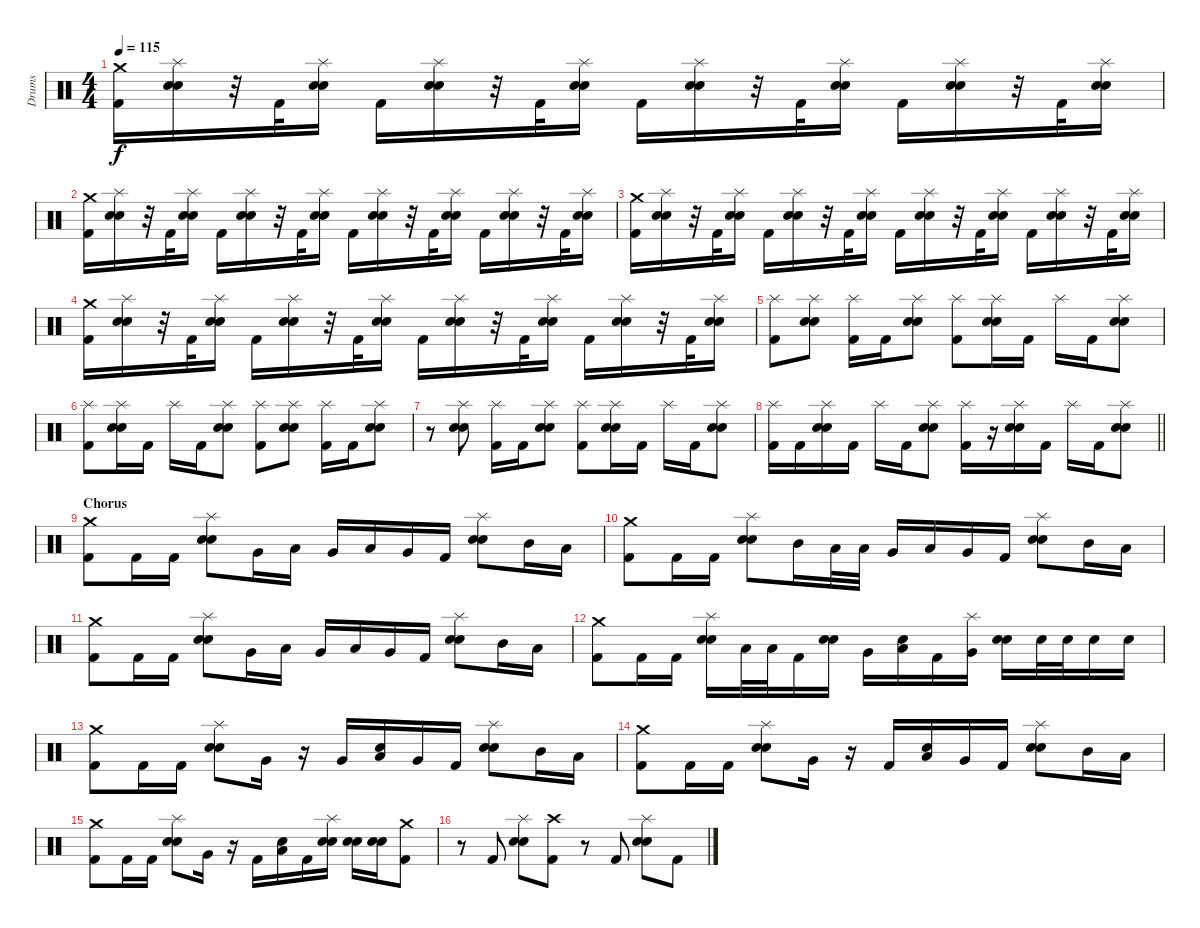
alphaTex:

\track ("Drums" "Drums") {instrument percussion}
\staff {score}
\articulation defaults
\ts (4 4)
\tempo 115
\clef neutral
\ks c
("Crash medium (hit)" "Kick (hit) 2").16{dy f} ("Splash (hit)" "Electric Snare (hit)" "Snare (hit) 2").16 r.32 "Kick (hit) 2".32 ("Splash (hit)" "Electric Snare (hit)" "Snare (hit) 2").16 "Kick (hit) 2".16 ("Splash (hit)" "Electric Snare (hit)" "Snare (hit) 2").16 r.32 "Kick (hit) 2".32 ("Splash (hit)" "Electric Snare (hit)" "Snare (hit) 2").16 "Kick (hit) 2".16 ("Splash (hit)" "Electric Snare (hit)" "Snare (hit) 2").16 r.32 "Kick (hit) 2".32 ("Splash (hit)" "Electric Snare (hit)" "Snare (hit) 2").16 "Kick (hit) 2".16 ("Splash (hit)" "Electric Snare (hit)" "Snare (hit) 2").16 r.32 "Kick (hit) 2".32 ("Splash (hit)" "Electric Snare (hit)" "Snare (hit) 2").16 |
("Crash medium (hit)" "Kick (hit) 2").16 ("Splash (hit)" "Electric Snare (hit)" "Snare (hit) 2").16 r.32 "Kick (hit) 2".32 ("Splash (hit)" "Electric Snare (hit)" "Snare (hit) 2").16 "Kick (hit) 2".16 ("Splash (hit)" "Electric Snare (hit)" "Snare (hit) 2").16 r.32 "Kick (hit) 2".32 ("Splash (hit)" "Electric Snare (hit)" "Snare (hit) 2").16 "Kick (hit) 2".16 ("Splash (hit)" "Electric Snare (hit)" "Snare (hit) 2").16 r.32 "Kick (hit) 2".32 ("Splash (hit)" "Electric Snare (hit)" "Snare (hit) 2").16 "Kick (hit) 2".16 ("Splash (hit)" "Electric Snare (hit)" "Snare (hit) 2").16 r.32 "Kick (hit) 2".32 ("Splash (hit)" "Electric Snare (hit)" "Snare (hit) 2").16 |
("Crash medium (hit)" "Kick (hit) 2").16 ("Splash (hit)" "Electric Snare (hit)" "Snare (hit) 2").16 r.32 "Kick (hit) 2".32 ("Splash (hit)" "Electric Snare (hit)" "Snare (hit) 2").16 "Kick (hit) 2".16 ("Splash (hit)" "Electric Snare (hit)" "Snare (hit) 2").16 r.32 "Kick (hit) 2".32 ("Splash (hit)" "Electric Snare (hit)" "Snare (hit) 2").16 "Kick (hit) 2".16 ("Splash (hit)" "Electric Snare (hit)" "Snare (hit) 2").16 r.32 "Kick (hit) 2".32 ("Splash (hit)" "Electric Snare (hit)" "Snare (hit) 2").16 "Kick (hit) 2".16 ("Splash (hit)" "Electric Snare (hit)" "Snare (hit) 2").16 r.32 "Kick (hit) 2".32 ("Splash (hit)" "Electric Snare (hit)" "Snare (hit) 2").16 |
("Crash medium (hit)" "Kick (hit) 2").16 ("Splash (hit)" "Electric Snare (hit)" "Snare (hit) 2").16 r.32 "Kick (hit) 2".32 ("Splash (hit)" "Electric Snare (hit)" "Snare (hit) 2").16 "Kick (hit) 2".16 ("Splash (hit)" "Electric Snare (hit)" "Snare (hit) 2").16 r.32 "Kick (hit) 2".32 ("Splash (hit)" "Electric Snare (hit)" "Snare (hit) 2").16 "Kick (hit) 2".16 ("Splash (hit)" "Electric Snare (hit)" "Snare (hit) 2").16 r.32 "Kick (hit) 2".32 ("Splash (hit)" "Electric Snare (hit)" "Snare (hit) 2").16 "Kick (hit) 2".16 ("Splash (hit)" "Electric Snare (hit)" "Snare (hit) 2").16 r.32 "Kick (hit) 2".32 ("Splash (hit)" "Electric Snare (hit)" "Snare (hit) 2").16 |
("Splash (hit)" "Kick (hit) 2").8 ("Splash (hit)" "Electric Snare (hit)" "Snare (hit) 2").8 ("Splash (hit)" "Kick (hit) 2").16 "Kick (hit) 2".16 ("Splash (hit)" "Electric Snare (hit)" "Snare (hit) 2").8 ("Splash (hit)" "Kick (hit) 2").8 ("Splash (hit)" "Electric Snare (hit)" "Snare (hit) 2").16 "Kick (hit) 2".16 "Splash (hit)".16 "Kick (hit) 2".16 ("Splash (hit)" "Electric Snare (hit)" "Snare (hit) 2").8 |
("Splash (hit)" "Kick (hit) 2").8 ("Splash (hit)" "Electric Snare (hit)" "Snare (hit) 2").16 "Kick (hit) 2".16 "Splash (hit)".16 "Kick (hit) 2".16 ("Splash (hit)" "Electric Snare (hit)" "Snare (hit) 2").8 ("Splash (hit)" "Kick (hit) 2").8 ("Splash (hit)" "Electric Snare (hit)" "Snare (hit) 2").8 ("Splash (hit)" "Kick (hit) 2").16 "Kick (hit) 2".16 ("Splash (hit)" "Electric Snare (hit)" "Snare (hit) 2").8 |
r.8 ("Splash (hit)" "Electric Snare (hit)" "Snare (hit) 2").8 ("Splash (hit)" "Kick (hit) 2").16 "Kick (hit) 2".16 ("Splash (hit)" "Electric Snare (hit)" "Snare (hit) 2").8 ("Splash (hit)" "Kick (hit) 2").8 ("Splash (hit)" "Electric Snare (hit)" "Snare (hit) 2").16 "Kick (hit) 2".16 "Splash (hit)".16 "Kick (hit) 2".16 ("Splash (hit)" "Electric Snare (hit)" "Snare (hit) 2").8 |
\barLineRight lightlight
("Splash (hit)" "Kick (hit) 2").16 "Kick (hit) 2".16 ("Splash (hit)" "Electric Snare (hit)" "Snare (hit) 2").16 "Kick (hit) 2".16 "Splash (hit)".16 "Kick (hit) 2".16 ("Splash (hit)" "Electric Snare (hit)" "Snare (hit) 2").8 ("Splash (hit)" "Kick (hit) 2").16 r.16 ("Splash (hit)" "Electric Snare (hit)" "Snare (hit) 2").16 "Kick (hit) 2".16 "Splash (hit)".16 "Kick (hit) 2".16 ("Splash (hit)" "Electric Snare (hit)" "Snare (hit) 2").8 |
\section ("" "Chorus")
("Crash medium (hit)" "Kick (hit) 2").8 "Kick (hit) 2".16 "Kick (hit) 2".16 ("Splash (hit)" "Electric Snare (hit)" "Snare (hit) 2").8 "Very Low Tom (hit)".16 "Low Tom (hit)".16 "Very Low Tom (hit)".16 "Low Tom (hit)".16 "Very Low Tom (hit)".16 "Kick (hit) 2".16 ("Splash (hit)" "Electric Snare (hit)" "Snare (hit) 2").8 "Mid Tom (hit)".16 "Low Tom (hit)".16 |
("Crash medium (hit)" "Kick (hit) 2").8 "Kick (hit) 2".16 "Kick (hit) 2".16 ("Splash (hit)" "Electric Snare (hit)" "Snare (hit) 2").8 "Mid Tom (hit)".16 "Low Tom (hit)".32 "Low Tom (hit)".32 "Very Low Tom (hit)".16 "Low Tom (hit)".16 "Very Low Tom (hit)".16 "Kick (hit) 2".16 ("Splash (hit)" "Electric Snare (hit)" "Snare (hit) 2").8 "Mid Tom (hit)".16 "Low Tom (hit)".16 |
("Crash medium (hit)" "Kick (hit) 2").8 "Kick (hit) 2".16 "Kick (hit) 2".16 ("Splash (hit)" "Electric Snare (hit)" "Snare (hit) 2").8 "Very Low Tom (hit)".16 "Low Tom (hit)".16 "Very Low Tom (hit)".16 "Low Tom (hit)".16 "Very Low Tom (hit)".16 "Kick (hit) 2".16 ("Splash (hit)" "Electric Snare (hit)" "Snare (hit) 2").8 "Mid Tom (hit)".16 "Low Tom (hit)".16 |
("Crash medium (hit)" "Kick (hit) 2").8 "Kick (hit) 2".16 "Kick (hit) 2".16 ("Splash (hit)" "Electric Snare (hit)" "Snare (hit) 2").16 "Low Tom (hit)".32 "Low Tom (hit)".32 "Kick (hit) 2".16 ("Electric Snare (hit)" "Snare (hit) 2").16 "Very Low Tom (hit)".16 ("Electric Snare (hit)" "Low Tom (hit)").16 "Kick (hit) 2".16 ("Splash (hit)" "Very Low Tom (hit)").16 ("Electric Snare (hit)" "Snare (hit) 2").16 "Electric Snare (hit)".32 "Electric Snare (hit)".32 "Electric Snare (hit)".16 "Electric Snare (hit)".16 |
("Crash medium (hit)" "Kick (hit) 2").8 "Kick (hit) 2".16 "Kick (hit) 2".16 ("Splash (hit)" "Electric Snare (hit)" "Snare (hit) 2").8 "Very Low Tom (hit)".16 r.16 "Very Low Tom (hit)".16 ("Electric Snare (hit)" "Low Tom (hit)").16 "Very Low Tom (hit)".16 "Kick (hit) 2".16 ("Splash (hit)" "Electric Snare (hit)" "Snare (hit) 2").8 "Mid Tom (hit)".16 "Low Tom (hit)".16 |
("Crash medium (hit)" "Kick (hit) 2").8 "Kick (hit) 2".16 "Kick (hit) 2".16 ("Splash (hit)" "Electric Snare (hit)" "Snare (hit) 2").8 "Very Low Tom (hit)".16 r.16 "Kick (hit) 2".16 ("Electric Snare (hit)" "Low Tom (hit)").16 "Very Low Tom (hit)".16 "Kick (hit) 2".16 ("Splash (hit)" "Electric Snare (hit)" "Snare (hit) 2").8 "Mid Tom (hit)".16 "Low Tom (hit)".16 |
("Crash medium (hit)" "Kick (hit) 2").8 "Kick (hit) 2".16 "Kick (hit) 2".16 ("Splash (hit)" "Electric Snare (hit)" "Snare (hit) 2").8 "Very Low Tom (hit)".16 r.16 "Kick (hit) 2".16 ("Electric Snare (hit)" "Low Tom (hit)").16 "Kick (hit) 2".16 ("Splash (hit)" "Electric Snare (hit)" "Snare (hit) 2").16 ("Electric Snare (hit)" "Snare (hit) 2").16 ("Electric Snare (hit)" "Snare (hit) 2").16 ("Crash medium (hit)" "Kick (hit) 2").8 |
r.8 "Kick (hit) 2".8 ("Splash (hit)" "Electric Snare (hit)" "Snare (hit) 2").8 ("Crash high (hit)" "Kick (hit) 2").8 r.8 "Kick (hit) 2".8 ("Splash (hit)" "Electric Snare (hit)" "Snare (hit) 2").8 "Kick (hit) 2".8
